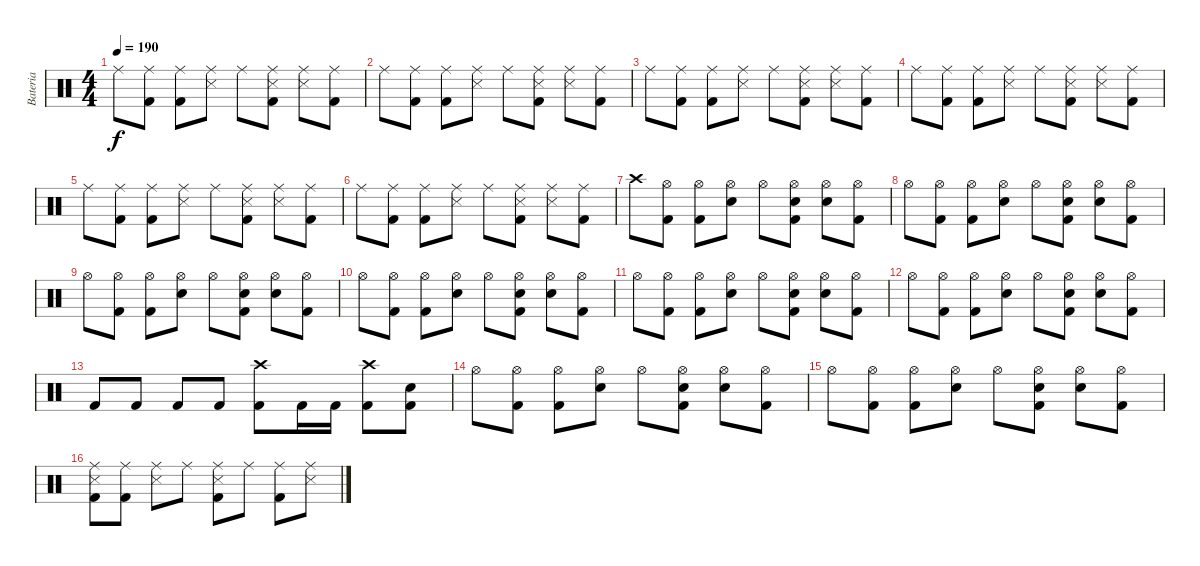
\track ("Bateria" "Bateria") {instrument percussion}
\staff {score}
\articulation defaults
\ts (4 4)
\tempo 190
\clef neutral
\ks c "Ride (middle)".8{dy f}
("Ride (middle)" "Kick (hit) 2").8 ("Ride (middle)" "Kick (hit) 2").8 ("Ride (middle)" "Snare (side stick) 3").8 "Ride (middle)".8 ("Ride (middle)" "Snare (side stick) 3" "Kick (hit) 2").8 ("Ride (middle)" "Snare (side stick) 3").8 ("Ride (middle)" "Kick (hit) 2").8 |
"Ride (middle)".8 ("Ride (middle)" "Kick (hit) 2").8 ("Ride (middle)" "Kick (hit) 2").8 ("Ride (middle)" "Snare (side stick) 3").8 "Ride (middle)".8 ("Ride (middle)" "Snare (side stick) 3" "Kick (hit) 2").8 ("Ride (middle)" "Snare (side stick) 3").8 ("Ride (middle)" "Kick (hit) 2").8 |
"Ride (middle)".8 ("Ride (middle)" "Kick (hit) 2").8 ("Ride (middle)" "Kick (hit) 2").8 ("Ride (middle)" "Snare (side stick) 3").8 "Ride (middle)".8 ("Ride (middle)" "Snare (side stick) 3" "Kick (hit) 2").8 ("Ride (middle)" "Snare (side stick) 3").8 ("Ride (middle)" "Kick (hit) 2").8 |
"Ride (middle)".8 ("Ride (middle)" "Kick (hit) 2").8 ("Ride (middle)" "Kick (hit) 2").8 ("Ride (middle)" "Snare (side stick) 3").8 "Ride (middle)".8 ("Ride (middle)" "Snare (side stick) 3" "Kick (hit) 2").8 ("Ride (middle)" "Snare (side stick) 3").8 ("Ride (middle)" "Kick (hit) 2").8 |
"Ride (middle)".8 ("Ride (middle)" "Kick (hit) 2").8 ("Ride (middle)" "Kick (hit) 2").8 ("Ride (middle)" "Snare (side stick) 3").8 "Ride (middle)".8 ("Ride (middle)" "Snare (side stick) 3" "Kick (hit) 2").8 ("Ride (middle)" "Snare (side stick) 3").8 ("Ride (middle)" "Kick (hit) 2").8 |
"Ride (middle)".8 ("Ride (middle)" "Kick (hit) 2").8 ("Ride (middle)" "Kick (hit) 2").8 ("Ride (middle)" "Snare (side stick) 3").8 "Ride (middle)".8 ("Ride (middle)" "Snare (side stick) 3" "Kick (hit) 2").8 ("Ride (middle)" "Snare (side stick) 3").8 ("Ride (middle)" "Kick (hit) 2").8 |
"Crash high (hit)".8 ("Hi-Hat (open)" "Kick (hit) 2").8 ("Hi-Hat (open)" "Kick (hit) 2").8 ("Hi-Hat (open)" "Electric Snare (hit)").8 "Hi-Hat (open)".8 ("Hi-Hat (open)" "Electric Snare (hit)" "Kick (hit) 2").8 ("Hi-Hat (open)" "Electric Snare (hit)").8 ("Hi-Hat (open)" "Kick (hit) 2").8 |
"Hi-Hat (open)".8 ("Hi-Hat (open)" "Kick (hit) 2").8 ("Hi-Hat (open)" "Kick (hit) 2").8 ("Hi-Hat (open)" "Electric Snare (hit)").8 "Hi-Hat (open)".8 ("Hi-Hat (open)" "Electric Snare (hit)" "Kick (hit) 2").8 ("Hi-Hat (open)" "Electric Snare (hit)").8 ("Hi-Hat (open)" "Kick (hit) 2").8 |
"Hi-Hat (open)".8 ("Hi-Hat (open)" "Kick (hit) 2").8 ("Hi-Hat (open)" "Kick (hit) 2").8 ("Hi-Hat (open)" "Electric Snare (hit)").8 "Hi-Hat (open)".8 ("Hi-Hat (open)" "Electric Snare (hit)" "Kick (hit) 2").8 ("Hi-Hat (open)" "Electric Snare (hit)").8 ("Hi-Hat (open)" "Kick (hit) 2").8 |
"Hi-Hat (open)".8 ("Hi-Hat (open)" "Kick (hit) 2").8 ("Hi-Hat (open)" "Kick (hit) 2").8 ("Hi-Hat (open)" "Electric Snare (hit)").8 "Hi-Hat (open)".8 ("Hi-Hat (open)" "Electric Snare (hit)" "Kick (hit) 2").8 ("Hi-Hat (open)" "Electric Snare (hit)").8 ("Hi-Hat (open)" "Kick (hit) 2").8 |
"Hi-Hat (open)".8 ("Hi-Hat (open)" "Kick (hit) 2").8 ("Hi-Hat (open)" "Kick (hit) 2").8 ("Hi-Hat (open)" "Electric Snare (hit)").8 "Hi-Hat (open)".8 ("Hi-Hat (open)" "Electric Snare (hit)" "Kick (hit) 2").8 ("Hi-Hat (open)" "Electric Snare (hit)").8 ("Hi-Hat (open)" "Kick (hit) 2").8 |
"Hi-Hat (open)".8 ("Hi-Hat (open)" "Kick (hit) 2").8 ("Hi-Hat (open)" "Kick (hit) 2").8 ("Hi-Hat (open)" "Electric Snare (hit)").8 "Hi-Hat (open)".8 ("Hi-Hat (open)" "Electric Snare (hit)" "Kick (hit) 2").8 ("Hi-Hat (open)" "Electric Snare (hit)").8 ("Hi-Hat (open)" "Kick (hit) 2").8 |
"Kick (hit) 2".8 "Kick (hit) 2".8 "Kick (hit) 2".8 "Kick (hit) 2".8 ("Crash high (hit)" "Kick (hit) 2").8 "Kick (hit) 2".16 "Kick (hit) 2".16 ("Crash high (hit)" "Kick (hit) 2").8 ("Electric Snare (hit)" "Kick (hit) 2").8 |
"Hi-Hat (open)".8 ("Hi-Hat (open)" "Kick (hit) 2").8 ("Hi-Hat (open)" "Kick (hit) 2").8 ("Hi-Hat (open)" "Electric Snare (hit)").8 "Hi-Hat (open)".8 ("Hi-Hat (open)" "Electric Snare (hit)" "Kick (hit) 2").8 ("Hi-Hat (open)" "Electric Snare (hit)").8 ("Hi-Hat (open)" "Kick (hit) 2").8 |
"Hi-Hat (open)".8 ("Hi-Hat (open)" "Kick (hit) 2").8 ("Hi-Hat (open)" "Kick (hit) 2").8 ("Hi-Hat (open)" "Electric Snare (hit)").8 "Hi-Hat (open)".8 ("Hi-Hat (open)" "Electric Snare (hit)" "Kick (hit) 2").8 ("Hi-Hat (open)" "Electric Snare (hit)").8 ("Hi-Hat (open)" "Kick (hit) 2").8 |
("Ride (middle)" "Snare (side stick) 3" "Kick (hit) 2").8 ("Ride (middle)" "Kick (hit) 2").8 ("Ride (middle)" "Snare (side stick) 3").8 "Ride (middle)".8 ("Ride (middle)" "Snare (side stick) 3" "Kick (hit) 2").8 "Ride (middle)".8 ("Ride (middle)" "Kick (hit) 2").8 ("Ride (middle)" "Snare (side stick) 3").8
